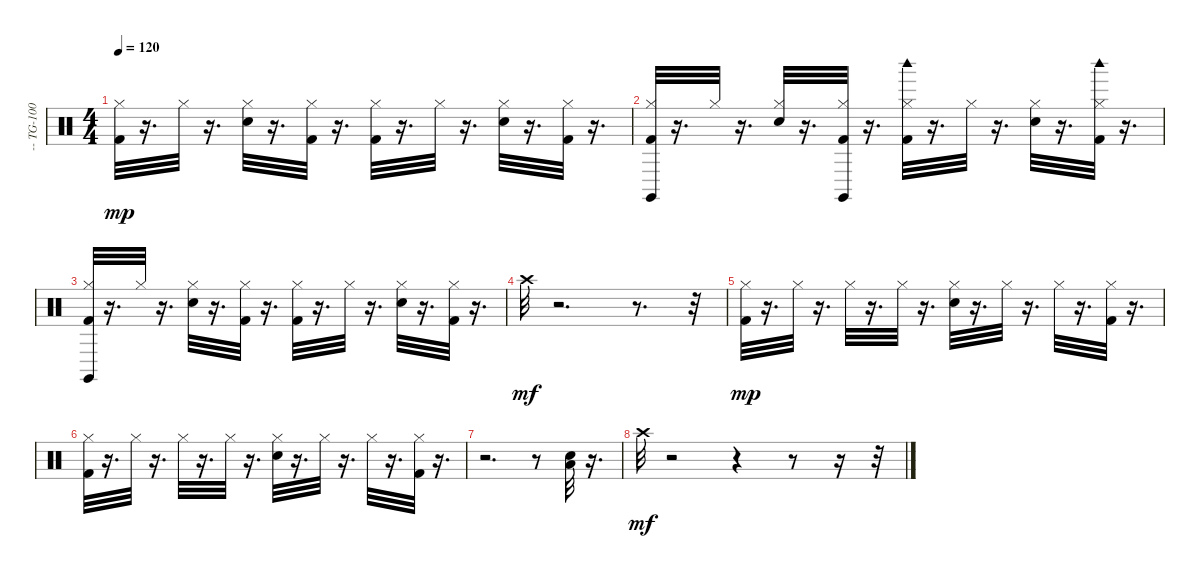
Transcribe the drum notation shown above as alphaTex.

\track ("-- TG-100 GS Drum --" "-- TG-100 ") {instrument percussion}
\staff {score}
\articulation defaults
\ts (4 4)
\tempo 120
\clef neutral
\ks c
("Hi-Hat (closed)" "Kick (hit) 2").32{dy mp} r.16{d} "Hi-Hat (closed)".32 r.16{d} ("Hi-Hat (closed)" "Snare (hit) 2").32 r.16{d} ("Hi-Hat (closed)" "Kick (hit) 2").32 r.16{d} ("Hi-Hat (closed)" "Kick (hit) 2").32 r.16{d} "Hi-Hat (closed)".32 r.16{d} ("Hi-Hat (closed)" "Snare (hit) 2").32 r.16{d} ("Hi-Hat (closed)" "Kick (hit) 2").32 r.16{d} |
("Hi-Hat (closed)" "Claves (hit)" "Kick (hit) 2").32 r.16{d} "Hi-Hat (closed)".32 r.16{d} ("Hi-Hat (closed)" "Snare (hit) 2").32 r.16{d} ("Hi-Hat (closed)" "Claves (hit)" "Kick (hit) 2").32 r.16{d} ("Hi-Hat (closed)" "Woodblock high (hit)" "Kick (hit) 2").32 r.16{d} "Hi-Hat (closed)".32 r.16{d} ("Hi-Hat (closed)" "Snare (hit) 2").32 r.16{d} ("Hi-Hat (closed)" "Woodblock high (hit)" "Kick (hit) 2").32 r.16{d} |
("Hi-Hat (closed)" "Claves (hit)" "Kick (hit) 2").32 r.16{d} "Hi-Hat (closed)".32 r.16{d} ("Hi-Hat (closed)" "Snare (hit) 2").32 r.16{d} ("Hi-Hat (closed)" "Kick (hit) 2").32 r.16{d} ("Hi-Hat (closed)" "Kick (hit) 2").32 r.16{d} "Hi-Hat (closed)".32 r.16{d} ("Hi-Hat (closed)" "Snare (hit) 2").32 r.16{d} ("Hi-Hat (closed)" "Kick (hit) 2").32 r.16{d} |
"Crash high (hit)".32{dy mf} r.2{d} r.8{d} r.32 |
("Hi-Hat (closed)" "Kick (hit) 2").32{dy mp} r.16{d} "Hi-Hat (closed)".32 r.16{d} "Hi-Hat (closed)".32 r.16{d} "Hi-Hat (closed)".32 r.16{d} ("Hi-Hat (closed)" "Snare (hit) 2").32 r.16{d} "Hi-Hat (closed)".32 r.16{d} "Hi-Hat (closed)".32 r.16{d} ("Hi-Hat (closed)" "Kick (hit) 2").32 r.16{d} |
("Hi-Hat (closed)" "Kick (hit) 2").32 r.16{d} "Hi-Hat (closed)".32 r.16{d} "Hi-Hat (closed)".32 r.16{d} "Hi-Hat (closed)".32 r.16{d} ("Hi-Hat (closed)" "Snare (hit) 2").32 r.16{d} "Hi-Hat (closed)".32 r.16{d} "Hi-Hat (closed)".32 r.16{d} ("Hi-Hat (closed)" "Kick (hit) 2").32 r.16{d} |
r.2{d} r.8 ("Snare (hit) 2" "Low Floor Tom (hit)").32 r.16{d} |
"Crash high (hit)".32{dy mf} r.2 r.4 r.8 r.16 r.32
